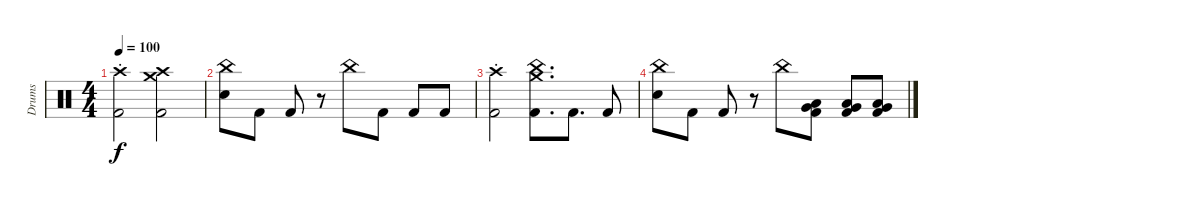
\track ("Drums" "Drums") {instrument percussion}
\staff {score}
\articulation defaults
\ts (4 4)
\tempo 100
\clef neutral
\ks c
("Crash high (hit)"{st} "Kick (hit) 2").2{dy f} ("Crash medium (hit)" "Crash high (hit)" "Kick (hit) 2").2 |
("China (hit)" "Snare (hit) 2").8 "Kick (hit) 2".8 "Kick (hit) 2".8 r.8 "China (hit)".8 "Kick (hit) 2".8 "Kick (hit) 2".8 "Kick (hit) 2".8 |
("Crash high (hit)"{st} "Kick (hit) 2").2 ("Crash medium (hit)" "China (hit)" "Kick (hit) 2").8{d} "Kick (hit) 2".8{d} "Kick (hit) 2".8 |
("China (hit)" "Snare (hit) 2").8 "Kick (hit) 2".8 "Kick (hit) 2".8 r.8 "China (hit)".8 ("Very Low Tom (hit)" "Low Tom (hit)" "Kick (hit) 2").8 ("Very Low Tom (hit)" "Low Tom (hit)" "Kick (hit) 2").8 ("Very Low Tom (hit)" "Low Tom (hit)" "Kick (hit) 2").8
